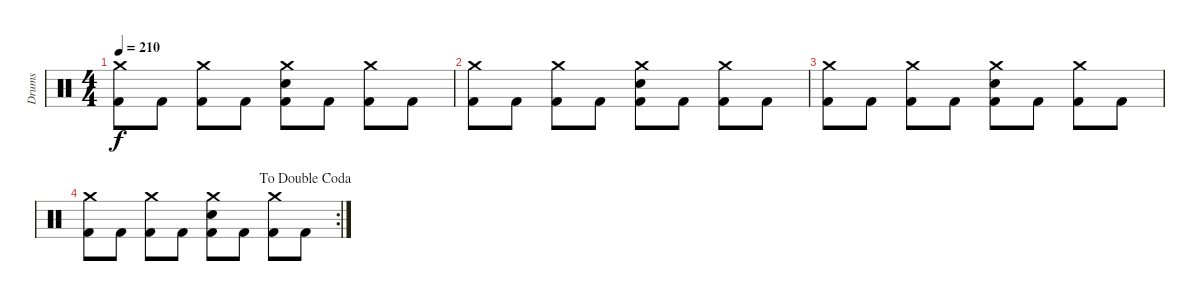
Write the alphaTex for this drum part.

\track ("Drums" "Drums") {instrument percussion}
\staff {score}
\articulation defaults
\ts (4 4)
\tempo 210
\clef neutral
\ks c
("Crash medium (hit)" "Kick (hit) 2").8{dy f} "Kick (hit) 2".8 ("Crash medium (hit)" "Kick (hit) 2").8 "Kick (hit) 2".8 ("Crash medium (hit)" "Electric Snare (hit)" "Kick (hit) 2").8 "Kick (hit) 2".8 ("Crash medium (hit)" "Kick (hit) 2").8 "Kick (hit) 2".8 |
("Crash medium (hit)" "Kick (hit) 2").8 "Kick (hit) 2".8 ("Crash medium (hit)" "Kick (hit) 2").8 "Kick (hit) 2".8 ("Crash medium (hit)" "Electric Snare (hit)" "Kick (hit) 2").8 "Kick (hit) 2".8 ("Crash medium (hit)" "Kick (hit) 2").8 "Kick (hit) 2".8 |
("Crash medium (hit)" "Kick (hit) 2").8 "Kick (hit) 2".8 ("Crash medium (hit)" "Kick (hit) 2").8 "Kick (hit) 2".8 ("Crash medium (hit)" "Electric Snare (hit)" "Kick (hit) 2").8 "Kick (hit) 2".8 ("Crash medium (hit)" "Kick (hit) 2").8 "Kick (hit) 2".8 |
\rc 2
\jump dadoublecoda
("Crash medium (hit)" "Kick (hit) 2").8 "Kick (hit) 2".8 ("Crash medium (hit)" "Kick (hit) 2").8 "Kick (hit) 2".8 ("Crash medium (hit)" "Electric Snare (hit)" "Kick (hit) 2").8 "Kick (hit) 2".8 ("Crash medium (hit)" "Kick (hit) 2").8 "Kick (hit) 2".8
